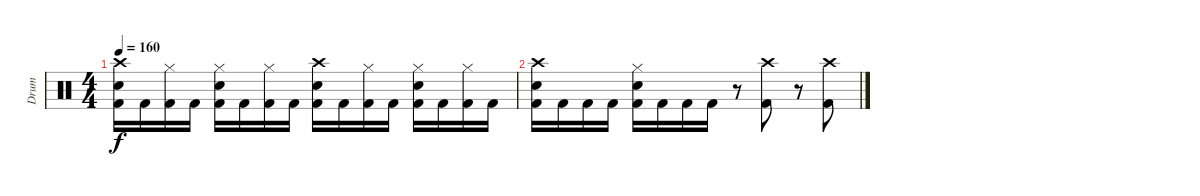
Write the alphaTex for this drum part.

\track ("Drum" "Drum") {instrument percussion}
\staff {score}
\articulation defaults
\ts (4 4)
\tempo 160
\clef neutral
\ks c
("Crash high (hit)" "Electric Snare (hit)" "Kick (hit) 2").16{dy f} "Kick (hit) 2".16 ("Hi-Hat (closed)" "Kick (hit) 2").16 "Kick (hit) 2".16 ("Hi-Hat (closed)" "Electric Snare (hit)" "Kick (hit) 2").16 "Kick (hit) 2".16 ("Hi-Hat (closed)" "Kick (hit) 2").16 "Kick (hit) 2".16 ("Crash high (hit)" "Electric Snare (hit)" "Kick (hit) 2").16 "Kick (hit) 2".16 ("Hi-Hat (closed)" "Kick (hit) 2").16 "Kick (hit) 2".16 ("Hi-Hat (closed)" "Electric Snare (hit)" "Kick (hit) 2").16 "Kick (hit) 2".16 ("Hi-Hat (closed)" "Kick (hit) 2").16 "Kick (hit) 2".16 |
("Crash high (hit)" "Electric Snare (hit)" "Kick (hit) 2").16 "Kick (hit) 2".16 "Kick (hit) 2".16 "Kick (hit) 2".16 ("Hi-Hat (closed)" "Electric Snare (hit)" "Kick (hit) 2").16 "Kick (hit) 2".16 "Kick (hit) 2".16 "Kick (hit) 2".16 r.8 ("Crash high (hit)" "Kick (hit) 2").8 r.8 ("Crash high (hit)" "Kick (hit) 2").8
